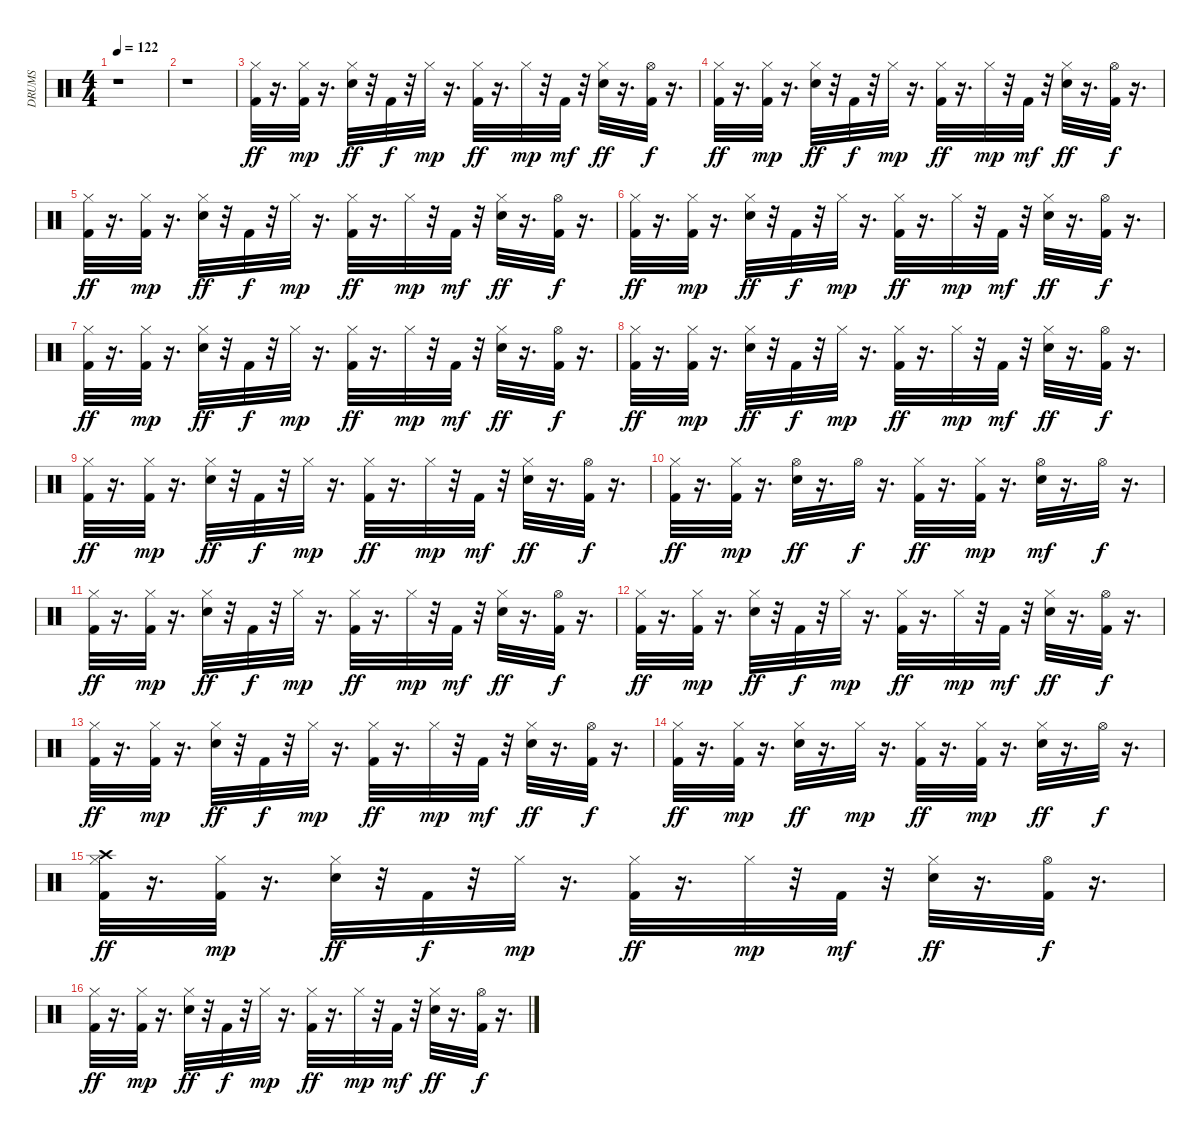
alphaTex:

\track ("DRUMS" "DRUMS") {instrument percussion}
\staff {score}
\articulation defaults
\ts (4 4)
\tempo 122
\clef neutral
\ks c
r.1{dy ff} |
r.1 |
("Hi-Hat (closed)" "Kick (hit) 2").32 r.16{d} ("Kick (hit) 2" "Hi-Hat (closed)").32{dy mp} r.16{d} ("Hi-Hat (closed)" "Snare (hit) 2").32{dy ff} r.32 "Kick (hit) 2".32{dy f} r.32 "Hi-Hat (closed)".32{dy mp} r.16{d} ("Kick (hit) 2" "Hi-Hat (closed)").32{dy ff} r.16{d} "Hi-Hat (closed)".32{dy mp} r.32 "Kick (hit) 2".32{dy mf} r.32 ("Hi-Hat (closed)" "Snare (hit) 2").32{dy ff} r.16{d} ("Kick (hit) 2" "Hi-Hat (open)").32{dy f} r.16{d} |
("Hi-Hat (closed)" "Kick (hit) 2").32{dy ff} r.16{d} ("Hi-Hat (closed)" "Kick (hit) 2").32{dy mp} r.16{d} ("Snare (hit) 2" "Hi-Hat (closed)").32{dy ff} r.32 "Kick (hit) 2".32{dy f} r.32 "Hi-Hat (closed)".32{dy mp} r.16{d} ("Hi-Hat (closed)" "Kick (hit) 2").32{dy ff} r.16{d} "Hi-Hat (closed)".32{dy mp} r.32 "Kick (hit) 2".32{dy mf} r.32 ("Snare (hit) 2" "Hi-Hat (closed)").32{dy ff} r.16{d} ("Kick (hit) 2" "Hi-Hat (open)").32{dy f} r.16{d} |
("Hi-Hat (closed)" "Kick (hit) 2").32{dy ff} r.16{d} ("Kick (hit) 2" "Hi-Hat (closed)").32{dy mp} r.16{d} ("Snare (hit) 2" "Hi-Hat (closed)").32{dy ff} r.32 "Kick (hit) 2".32{dy f} r.32 "Hi-Hat (closed)".32{dy mp} r.16{d} ("Kick (hit) 2" "Hi-Hat (closed)").32{dy ff} r.16{d} "Hi-Hat (closed)".32{dy mp} r.32 "Kick (hit) 2".32{dy mf} r.32 ("Hi-Hat (closed)" "Snare (hit) 2").32{dy ff} r.16{d} ("Hi-Hat (open)" "Kick (hit) 2").32{dy f} r.16{d} |
("Hi-Hat (closed)" "Kick (hit) 2").32{dy ff} r.16{d} ("Kick (hit) 2" "Hi-Hat (closed)").32{dy mp} r.16{d} ("Hi-Hat (closed)" "Snare (hit) 2").32{dy ff} r.32 "Kick (hit) 2".32{dy f} r.32 "Hi-Hat (closed)".32{dy mp} r.16{d} ("Hi-Hat (closed)" "Kick (hit) 2").32{dy ff} r.16{d} "Hi-Hat (closed)".32{dy mp} r.32 "Kick (hit) 2".32{dy mf} r.32 ("Snare (hit) 2" "Hi-Hat (closed)").32{dy ff} r.16{d} ("Kick (hit) 2" "Hi-Hat (open)").32{dy f} r.16{d} |
("Kick (hit) 2" "Hi-Hat (closed)").32{dy ff} r.16{d} ("Hi-Hat (closed)" "Kick (hit) 2").32{dy mp} r.16{d} ("Hi-Hat (closed)" "Snare (hit) 2").32{dy ff} r.32 "Kick (hit) 2".32{dy f} r.32 "Hi-Hat (closed)".32{dy mp} r.16{d} ("Kick (hit) 2" "Hi-Hat (closed)").32{dy ff} r.16{d} "Hi-Hat (closed)".32{dy mp} r.32 "Kick (hit) 2".32{dy mf} r.32 ("Hi-Hat (closed)" "Snare (hit) 2").32{dy ff} r.16{d} ("Kick (hit) 2" "Hi-Hat (open)").32{dy f} r.16{d} |
("Hi-Hat (closed)" "Kick (hit) 2").32{dy ff} r.16{d} ("Hi-Hat (closed)" "Kick (hit) 2").32{dy mp} r.16{d} ("Snare (hit) 2" "Hi-Hat (closed)").32{dy ff} r.32 "Kick (hit) 2".32{dy f} r.32 "Hi-Hat (closed)".32{dy mp} r.16{d} ("Kick (hit) 2" "Hi-Hat (closed)").32{dy ff} r.16{d} "Hi-Hat (closed)".32{dy mp} r.32 "Kick (hit) 2".32{dy mf} r.32 ("Hi-Hat (closed)" "Snare (hit) 2").32{dy ff} r.16{d} ("Hi-Hat (open)" "Kick (hit) 2").32{dy f} r.16{d} |
("Kick (hit) 2" "Hi-Hat (closed)").32{dy ff} r.16{d} ("Hi-Hat (closed)" "Kick (hit) 2").32{dy mp} r.16{d} ("Hi-Hat (closed)" "Snare (hit) 2").32{dy ff} r.32 "Kick (hit) 2".32{dy f} r.32 "Hi-Hat (closed)".32{dy mp} r.16{d} ("Kick (hit) 2" "Hi-Hat (closed)").32{dy ff} r.16{d} "Hi-Hat (closed)".32{dy mp} r.32 "Kick (hit) 2".32{dy mf} r.32 ("Snare (hit) 2" "Hi-Hat (closed)").32{dy ff} r.16{d} ("Kick (hit) 2" "Hi-Hat (open)").32{dy f} r.16{d} |
("Kick (hit) 2" "Hi-Hat (closed)").32{dy ff} r.16{d} ("Hi-Hat (closed)" "Kick (hit) 2").32{dy mp} r.16{d} ("Hi-Hat (open)" "Snare (hit) 2").32{dy ff} r.16{d} "Hi-Hat (open)".32{dy f} r.16{d} ("Kick (hit) 2" "Hi-Hat (closed)").32{dy ff} r.16{d} ("Hi-Hat (closed)" "Kick (hit) 2").32{dy mp} r.16{d} ("Snare (hit) 2" "Hi-Hat (open)").32{dy mf} r.16{d} "Hi-Hat (open)".32{dy f} r.16{d} |
("Kick (hit) 2" "Hi-Hat (closed)").32{dy ff} r.16{d} ("Kick (hit) 2" "Hi-Hat (closed)").32{dy mp} r.16{d} ("Hi-Hat (closed)" "Snare (hit) 2").32{dy ff} r.32 "Kick (hit) 2".32{dy f} r.32 "Hi-Hat (closed)".32{dy mp} r.16{d} ("Kick (hit) 2" "Hi-Hat (closed)").32{dy ff} r.16{d} "Hi-Hat (closed)".32{dy mp} r.32 "Kick (hit) 2".32{dy mf} r.32 ("Snare (hit) 2" "Hi-Hat (closed)").32{dy ff} r.16{d} ("Kick (hit) 2" "Hi-Hat (open)").32{dy f} r.16{d} |
("Hi-Hat (closed)" "Kick (hit) 2").32{dy ff} r.16{d} ("Kick (hit) 2" "Hi-Hat (closed)").32{dy mp} r.16{d} ("Snare (hit) 2" "Hi-Hat (closed)").32{dy ff} r.32 "Kick (hit) 2".32{dy f} r.32 "Hi-Hat (closed)".32{dy mp} r.16{d} ("Hi-Hat (closed)" "Kick (hit) 2").32{dy ff} r.16{d} "Hi-Hat (closed)".32{dy mp} r.32 "Kick (hit) 2".32{dy mf} r.32 ("Hi-Hat (closed)" "Snare (hit) 2").32{dy ff} r.16{d} ("Hi-Hat (open)" "Kick (hit) 2").32{dy f} r.16{d} |
("Hi-Hat (closed)" "Kick (hit) 2").32{dy ff} r.16{d} ("Hi-Hat (closed)" "Kick (hit) 2").32{dy mp} r.16{d} ("Hi-Hat (closed)" "Snare (hit) 2").32{dy ff} r.32 "Kick (hit) 2".32{dy f} r.32 "Hi-Hat (closed)".32{dy mp} r.16{d} ("Kick (hit) 2" "Hi-Hat (closed)").32{dy ff} r.16{d} "Hi-Hat (closed)".32{dy mp} r.32 "Kick (hit) 2".32{dy mf} r.32 ("Hi-Hat (closed)" "Snare (hit) 2").32{dy ff} r.16{d} ("Kick (hit) 2" "Hi-Hat (open)").32{dy f} r.16{d} |
("Kick (hit) 2" "Hi-Hat (closed)").32{dy ff} r.16{d} ("Kick (hit) 2" "Hi-Hat (closed)").32{dy mp} r.16{d} ("Snare (hit) 2" "Hi-Hat (closed)").32{dy ff} r.16{d} "Hi-Hat (closed)".32{dy mp} r.16{d} ("Hi-Hat (closed)" "Kick (hit) 2").32{dy ff} r.16{d} ("Kick (hit) 2" "Hi-Hat (closed)").32{dy mp} r.16{d} ("Hi-Hat (closed)" "Snare (hit) 2").32{dy ff} r.16{d} "Hi-Hat (open)".32{dy f} r.16{d} |
("Kick (hit) 2" "Hi-Hat (closed)" "Crash high (hit)").32{dy ff} r.16{d} ("Hi-Hat (closed)" "Kick (hit) 2").32{dy mp} r.16{d} ("Snare (hit) 2" "Hi-Hat (closed)").32{dy ff} r.32 "Kick (hit) 2".32{dy f} r.32 "Hi-Hat (closed)".32{dy mp} r.16{d} ("Hi-Hat (closed)" "Kick (hit) 2").32{dy ff} r.16{d} "Hi-Hat (closed)".32{dy mp} r.32 "Kick (hit) 2".32{dy mf} r.32 ("Snare (hit) 2" "Hi-Hat (closed)").32{dy ff} r.16{d} ("Hi-Hat (open)" "Kick (hit) 2").32{dy f} r.16{d} |
("Kick (hit) 2" "Hi-Hat (closed)").32{dy ff} r.16{d} ("Kick (hit) 2" "Hi-Hat (closed)").32{dy mp} r.16{d} ("Hi-Hat (closed)" "Snare (hit) 2").32{dy ff} r.32 "Kick (hit) 2".32{dy f} r.32 "Hi-Hat (closed)".32{dy mp} r.16{d} ("Kick (hit) 2" "Hi-Hat (closed)").32{dy ff} r.16{d} "Hi-Hat (closed)".32{dy mp} r.32 "Kick (hit) 2".32{dy mf} r.32 ("Hi-Hat (closed)" "Snare (hit) 2").32{dy ff} r.16{d} ("Kick (hit) 2" "Hi-Hat (open)").32{dy f} r.16{d}
